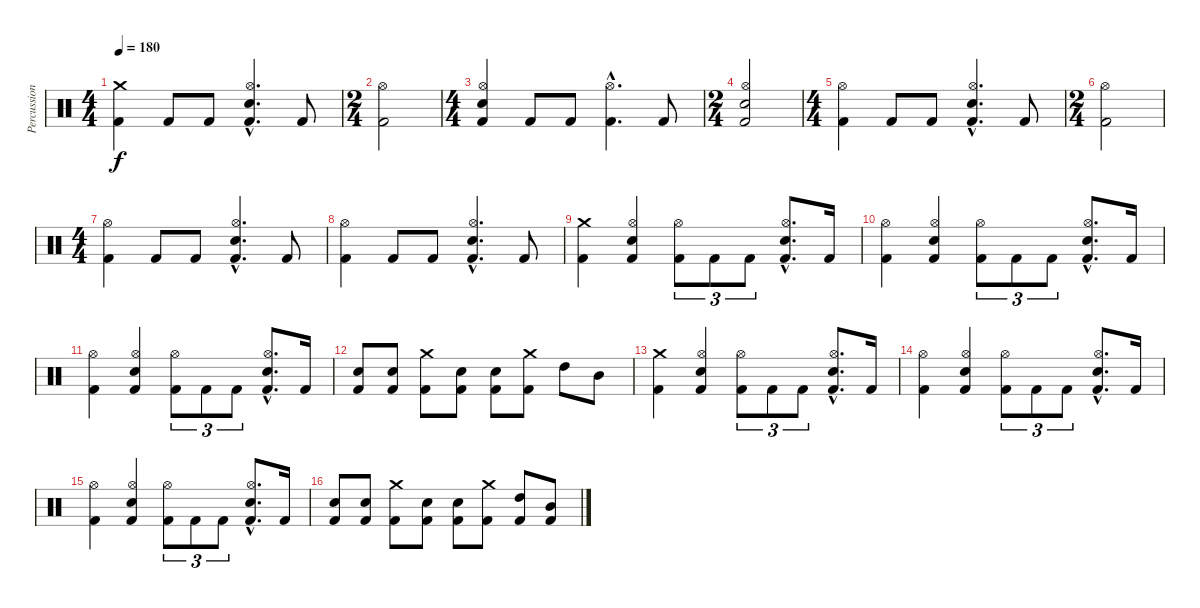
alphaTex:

\track ("Percussion" "Percussion") {instrument percussion}
\staff {score}
\articulation defaults
\ts (4 4)
\tempo 180
\clef neutral
\ks c
("Crash medium (hit)" "Kick (hit) 2").4{dy f} "Kick (hit) 2".8 "Kick (hit) 2".8 ("Hi-Hat (open)"{hac} "Electric Snare (hit)"{hac} "Kick (hit) 2"{hac}).4{d} "Kick (hit) 2".8 |
\ts (2 4)
("Hi-Hat (open)" "Kick (hit) 2").2 |
\ts (4 4)
("Hi-Hat (open)" "Electric Snare (hit)" "Kick (hit) 2").4 "Kick (hit) 2".8 "Kick (hit) 2".8 ("Hi-Hat (open)"{hac} "Kick (hit) 2"{hac}).4{d} "Kick (hit) 2".8 |
\ts (2 4)
("Hi-Hat (open)" "Electric Snare (hit)" "Kick (hit) 2").2 |
\ts (4 4)
("Hi-Hat (open)" "Kick (hit) 2").4 "Kick (hit) 2".8 "Kick (hit) 2".8 ("Hi-Hat (open)"{hac} "Electric Snare (hit)"{hac} "Kick (hit) 2"{hac}).4{d} "Kick (hit) 2".8 |
\ts (2 4)
("Hi-Hat (open)" "Kick (hit) 2").2 |
\ts (4 4)
("Hi-Hat (open)" "Kick (hit) 2").4 "Kick (hit) 2".8 "Kick (hit) 2".8 ("Hi-Hat (open)"{hac} "Electric Snare (hit)"{hac} "Kick (hit) 2"{hac}).4{d} "Kick (hit) 2".8 |
("Hi-Hat (open)" "Kick (hit) 2").4 "Kick (hit) 2".8 "Kick (hit) 2".8 ("Hi-Hat (open)"{hac} "Electric Snare (hit)"{hac} "Kick (hit) 2"{hac}).4{d} "Kick (hit) 2".8 |
("Crash medium (hit)" "Kick (hit) 2").4 ("Hi-Hat (open)" "Electric Snare (hit)" "Kick (hit) 2").4 ("Hi-Hat (open)" "Kick (hit) 2").8{tu (3 2)} "Kick (hit) 2".8{tu (3 2)} "Kick (hit) 2".8{tu (3 2)} ("Hi-Hat (open)"{hac} "Electric Snare (hit)"{hac} "Kick (hit) 2"{hac}).8{d} "Kick (hit) 2".16 |
("Hi-Hat (open)" "Kick (hit) 2").4 ("Hi-Hat (open)" "Electric Snare (hit)" "Kick (hit) 2").4 ("Hi-Hat (open)" "Kick (hit) 2").8{tu (3 2)} "Kick (hit) 2".8{tu (3 2)} "Kick (hit) 2".8{tu (3 2)} ("Hi-Hat (open)"{hac} "Electric Snare (hit)"{hac} "Kick (hit) 2"{hac}).8{d} "Kick (hit) 2".16 |
("Hi-Hat (open)" "Kick (hit) 2").4 ("Hi-Hat (open)" "Electric Snare (hit)" "Kick (hit) 2").4 ("Hi-Hat (open)" "Kick (hit) 2").8{tu (3 2)} "Kick (hit) 2".8{tu (3 2)} "Kick (hit) 2".8{tu (3 2)} ("Hi-Hat (open)"{hac} "Electric Snare (hit)"{hac} "Kick (hit) 2"{hac}).8{d} "Kick (hit) 2".16 |
("Electric Snare (hit)" "Kick (hit) 2").8 ("Electric Snare (hit)" "Kick (hit) 2").8 ("Crash medium (hit)" "Kick (hit) 2").8 ("Electric Snare (hit)" "Kick (hit) 2").8 ("Electric Snare (hit)" "Kick (hit) 2").8 ("Crash medium (hit)" "Kick (hit) 2").8 "High Tom (hit)".8 "Mid Tom (hit)".8 |
("Crash medium (hit)" "Kick (hit) 2").4 ("Hi-Hat (open)" "Electric Snare (hit)" "Kick (hit) 2").4 ("Hi-Hat (open)" "Kick (hit) 2").8{tu (3 2)} "Kick (hit) 2".8{tu (3 2)} "Kick (hit) 2".8{tu (3 2)} ("Hi-Hat (open)"{hac} "Electric Snare (hit)"{hac} "Kick (hit) 2"{hac}).8{d} "Kick (hit) 2".16 |
("Hi-Hat (open)" "Kick (hit) 2").4 ("Hi-Hat (open)" "Electric Snare (hit)" "Kick (hit) 2").4 ("Hi-Hat (open)" "Kick (hit) 2").8{tu (3 2)} "Kick (hit) 2".8{tu (3 2)} "Kick (hit) 2".8{tu (3 2)} ("Hi-Hat (open)"{hac} "Electric Snare (hit)"{hac} "Kick (hit) 2"{hac}).8{d} "Kick (hit) 2".16 |
("Hi-Hat (open)" "Kick (hit) 2").4 ("Hi-Hat (open)" "Electric Snare (hit)" "Kick (hit) 2").4 ("Hi-Hat (open)" "Kick (hit) 2").8{tu (3 2)} "Kick (hit) 2".8{tu (3 2)} "Kick (hit) 2".8{tu (3 2)} ("Hi-Hat (open)"{hac} "Electric Snare (hit)"{hac} "Kick (hit) 2"{hac}).8{d} "Kick (hit) 2".16 |
("Electric Snare (hit)" "Kick (hit) 2").8 ("Electric Snare (hit)" "Kick (hit) 2").8 ("Crash medium (hit)" "Kick (hit) 2").8 ("Electric Snare (hit)" "Kick (hit) 2").8 ("Electric Snare (hit)" "Kick (hit) 2").8 ("Crash medium (hit)" "Kick (hit) 2").8 ("High Tom (hit)" "Kick (hit) 2").8 ("Mid Tom (hit)" "Kick (hit) 2").8
